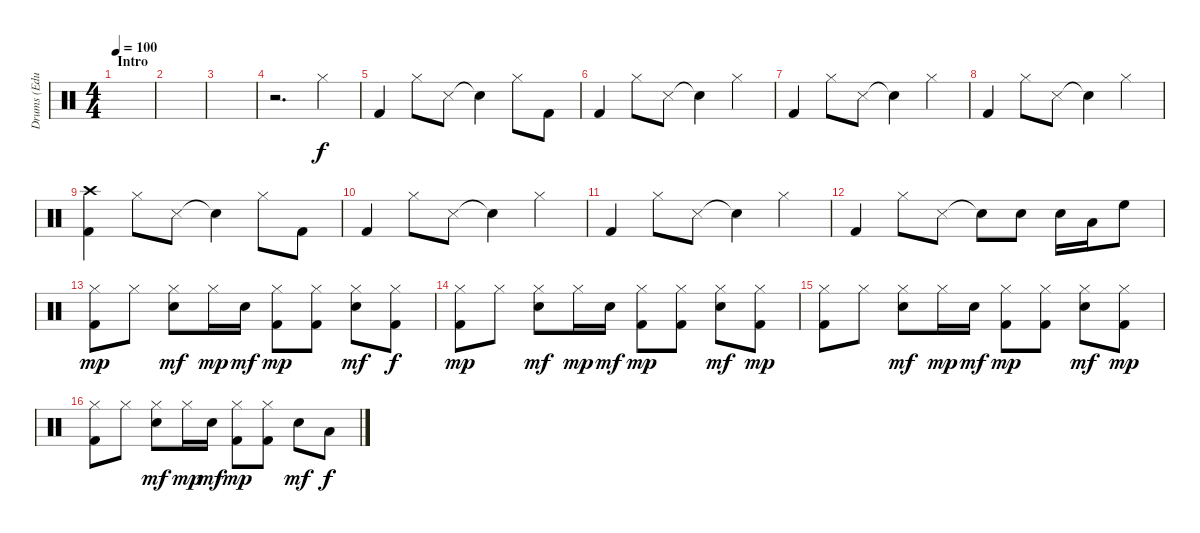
\track ("Drums (Eduardo)" "Drums (Edu") {instrument percussion}
\staff {score}
\articulation defaults
\ts (4 4)
\section ("" "Intro")
\tempo 100
\clef neutral
\ks c
|
|
|
r.2{d} "Hi-Hat (closed)".4 |
"Kick (hit) 2".4 "Hi-Hat (closed)".8 "Snare (side stick) 3".8 "Snare (hit)"{t}.4 "Hi-Hat (closed)".8 "Kick (hit) 2".8 |
"Kick (hit) 2".4 "Hi-Hat (closed)".8 "Snare (side stick) 3".8 "Snare (hit)"{t}.4 "Hi-Hat (closed)".4 |
"Kick (hit) 2".4 "Hi-Hat (closed)".8 "Snare (side stick) 3".8 "Snare (hit)"{t}.4 "Hi-Hat (closed)".4 |
"Kick (hit) 2".4 "Hi-Hat (closed)".8 "Snare (side stick) 3".8 "Snare (hit)"{t}.4 "Hi-Hat (closed)".4 |
("Crash high (hit)" "Kick (hit) 2").4 "Hi-Hat (closed)".8 "Snare (side stick) 3".8 "Snare (hit)"{t}.4 "Hi-Hat (closed)".8 "Kick (hit) 2".8 |
"Kick (hit) 2".4 "Hi-Hat (closed)".8 "Snare (side stick) 3".8 "Snare (hit)"{t}.4 "Hi-Hat (closed)".4 |
"Kick (hit) 2".4 "Hi-Hat (closed)".8 "Snare (side stick) 3".8 "Snare (hit)"{t}.4 "Hi-Hat (closed)".4 |
"Kick (hit) 2".4 "Hi-Hat (closed)".8 "Snare (side stick) 3".8 "Snare (hit)"{t}.8 "Electric Snare (hit)".8 "Electric Snare (hit)".16 "Low Tom (hit)".16 "High Floor Tom (hit)".8 |
("Hi-Hat (closed)" "Kick (hit) 2").8{dy mp volume 11} "Hi-Hat (closed)".8 ("Hi-Hat (closed)" "Electric Snare (hit)").8{dy mf} "Hi-Hat (closed)".16{dy mp} "Electric Snare (hit)".16{dy mf} ("Hi-Hat (closed)" "Kick (hit) 2").8{dy mp} ("Hi-Hat (closed)" "Kick (hit) 2").8 ("Hi-Hat (closed)" "Electric Snare (hit)").8{dy mf} ("Hi-Hat (closed)" "Kick (hit) 2").8{dy f} |
("Hi-Hat (closed)" "Kick (hit) 2").8{dy mp} "Hi-Hat (closed)".8 ("Hi-Hat (closed)" "Electric Snare (hit)").8{dy mf} "Hi-Hat (closed)".16{dy mp} "Electric Snare (hit)".16{dy mf} ("Hi-Hat (closed)" "Kick (hit) 2").8{dy mp} ("Hi-Hat (closed)" "Kick (hit) 2").8 ("Hi-Hat (closed)" "Electric Snare (hit)").8{dy mf} ("Hi-Hat (closed)" "Kick (hit) 2").8{dy mp} |
("Hi-Hat (closed)" "Kick (hit) 2").8 "Hi-Hat (closed)".8 ("Hi-Hat (closed)" "Electric Snare (hit)").8{dy mf} "Hi-Hat (closed)".16{dy mp} "Electric Snare (hit)".16{dy mf} ("Hi-Hat (closed)" "Kick (hit) 2").8{dy mp} ("Hi-Hat (closed)" "Kick (hit) 2").8 ("Hi-Hat (closed)" "Electric Snare (hit)").8{dy mf} ("Hi-Hat (closed)" "Kick (hit) 2").8{dy mp} |
("Hi-Hat (closed)" "Kick (hit) 2").8 "Hi-Hat (closed)".8 ("Hi-Hat (closed)" "Electric Snare (hit)").8{dy mf} "Hi-Hat (closed)".16{dy mp} "Electric Snare (hit)".16{dy mf} ("Hi-Hat (closed)" "Kick (hit) 2").8{dy mp} ("Hi-Hat (closed)" "Kick (hit) 2").8 "Electric Snare (hit)".8{dy mf} "Low Tom (hit)".8{dy f}
